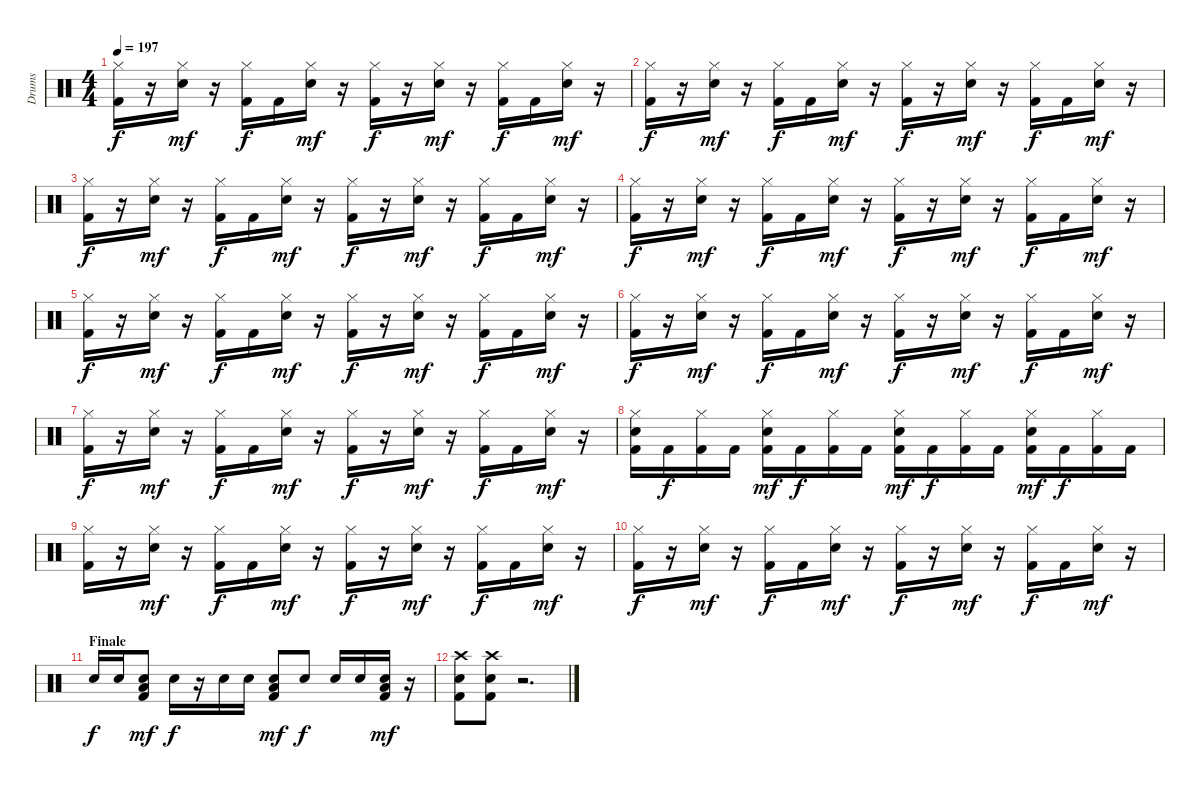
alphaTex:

\track ("Drums" "Drums") {instrument percussion}
\staff {score}
\articulation defaults
\ts (4 4)
\tempo 197
\clef neutral
\ks c
("Kick (hit) 2" "Hi-Hat (closed)").16{dy f} r.16 ("Snare (hit) 2" "Hi-Hat (closed)").16{dy mf} r.16 ("Kick (hit) 2" "Hi-Hat (closed)").16{dy f} "Kick (hit) 2".16 ("Snare (hit) 2" "Hi-Hat (closed)").16{dy mf} r.16 ("Kick (hit) 2" "Hi-Hat (closed)").16{dy f} r.16 ("Snare (hit) 2" "Hi-Hat (closed)").16{dy mf} r.16 ("Kick (hit) 2" "Hi-Hat (closed)").16{dy f} "Kick (hit) 2".16 ("Snare (hit) 2" "Hi-Hat (closed)").16{dy mf} r.16 |
("Kick (hit) 2" "Hi-Hat (closed)").16{dy f} r.16 ("Snare (hit) 2" "Hi-Hat (closed)").16{dy mf} r.16 ("Kick (hit) 2" "Hi-Hat (closed)").16{dy f} "Kick (hit) 2".16 ("Snare (hit) 2" "Hi-Hat (closed)").16{dy mf} r.16 ("Kick (hit) 2" "Hi-Hat (closed)").16{dy f} r.16 ("Snare (hit) 2" "Hi-Hat (closed)").16{dy mf} r.16 ("Kick (hit) 2" "Hi-Hat (closed)").16{dy f} "Kick (hit) 2".16 ("Snare (hit) 2" "Hi-Hat (closed)").16{dy mf} r.16 |
("Kick (hit) 2" "Hi-Hat (closed)").16{dy f} r.16 ("Snare (hit) 2" "Hi-Hat (closed)").16{dy mf} r.16 ("Kick (hit) 2" "Hi-Hat (closed)").16{dy f} "Kick (hit) 2".16 ("Snare (hit) 2" "Hi-Hat (closed)").16{dy mf} r.16 ("Kick (hit) 2" "Hi-Hat (closed)").16{dy f} r.16 ("Snare (hit) 2" "Hi-Hat (closed)").16{dy mf} r.16 ("Kick (hit) 2" "Hi-Hat (closed)").16{dy f} "Kick (hit) 2".16 ("Snare (hit) 2" "Hi-Hat (closed)").16{dy mf} r.16 |
("Kick (hit) 2" "Hi-Hat (closed)").16{dy f} r.16 ("Snare (hit) 2" "Hi-Hat (closed)").16{dy mf} r.16 ("Kick (hit) 2" "Hi-Hat (closed)").16{dy f} "Kick (hit) 2".16 ("Snare (hit) 2" "Hi-Hat (closed)").16{dy mf} r.16 ("Kick (hit) 2" "Hi-Hat (closed)").16{dy f} r.16 ("Snare (hit) 2" "Hi-Hat (closed)").16{dy mf} r.16 ("Kick (hit) 2" "Hi-Hat (closed)").16{dy f} "Kick (hit) 2".16 ("Snare (hit) 2" "Hi-Hat (closed)").16{dy mf} r.16 |
("Kick (hit) 2" "Hi-Hat (closed)").16{dy f} r.16 ("Snare (hit) 2" "Hi-Hat (closed)").16{dy mf} r.16 ("Kick (hit) 2" "Hi-Hat (closed)").16{dy f} "Kick (hit) 2".16 ("Snare (hit) 2" "Hi-Hat (closed)").16{dy mf} r.16 ("Kick (hit) 2" "Hi-Hat (closed)").16{dy f} r.16 ("Snare (hit) 2" "Hi-Hat (closed)").16{dy mf} r.16 ("Kick (hit) 2" "Hi-Hat (closed)").16{dy f} "Kick (hit) 2".16 ("Snare (hit) 2" "Hi-Hat (closed)").16{dy mf} r.16 |
("Kick (hit) 2" "Hi-Hat (closed)").16{dy f} r.16 ("Snare (hit) 2" "Hi-Hat (closed)").16{dy mf} r.16 ("Kick (hit) 2" "Hi-Hat (closed)").16{dy f} "Kick (hit) 2".16 ("Snare (hit) 2" "Hi-Hat (closed)").16{dy mf} r.16 ("Kick (hit) 2" "Hi-Hat (closed)").16{dy f} r.16 ("Snare (hit) 2" "Hi-Hat (closed)").16{dy mf} r.16 ("Kick (hit) 2" "Hi-Hat (closed)").16{dy f} "Kick (hit) 2".16 ("Snare (hit) 2" "Hi-Hat (closed)").16{dy mf} r.16 |
("Kick (hit) 2" "Hi-Hat (closed)").16{dy f} r.16 ("Snare (hit) 2" "Hi-Hat (closed)").16{dy mf} r.16 ("Kick (hit) 2" "Hi-Hat (closed)").16{dy f} "Kick (hit) 2".16 ("Snare (hit) 2" "Hi-Hat (closed)").16{dy mf} r.16 ("Kick (hit) 2" "Hi-Hat (closed)").16{dy f} r.16 ("Snare (hit) 2" "Hi-Hat (closed)").16{dy mf} r.16 ("Kick (hit) 2" "Hi-Hat (closed)").16{dy f} "Kick (hit) 2".16 ("Snare (hit) 2" "Hi-Hat (closed)").16{dy mf} r.16 |
("Kick (hit) 2" "Snare (hit) 2" "Hi-Hat (closed)").16 "Kick (hit) 2".16{dy f} ("Kick (hit) 2" "Hi-Hat (closed)").16 "Kick (hit) 2".16 ("Kick (hit) 2" "Snare (hit) 2" "Hi-Hat (closed)").16{dy mf} "Kick (hit) 2".16{dy f} ("Kick (hit) 2" "Hi-Hat (closed)").16 "Kick (hit) 2".16 ("Kick (hit) 2" "Snare (hit) 2" "Hi-Hat (closed)").16{dy mf} "Kick (hit) 2".16{dy f} ("Kick (hit) 2" "Hi-Hat (closed)").16 "Kick (hit) 2".16 ("Kick (hit) 2" "Snare (hit) 2" "Hi-Hat (closed)").16{dy mf} "Kick (hit) 2".16{dy f} ("Kick (hit) 2" "Hi-Hat (closed)").16 "Kick (hit) 2".16 |
("Kick (hit) 2" "Hi-Hat (closed)").16 r.16 ("Snare (hit) 2" "Hi-Hat (closed)").16{dy mf} r.16 ("Kick (hit) 2" "Hi-Hat (closed)").16{dy f} "Kick (hit) 2".16 ("Snare (hit) 2" "Hi-Hat (closed)").16{dy mf} r.16 ("Kick (hit) 2" "Hi-Hat (closed)").16{dy f} r.16 ("Snare (hit) 2" "Hi-Hat (closed)").16{dy mf} r.16 ("Kick (hit) 2" "Hi-Hat (closed)").16{dy f} "Kick (hit) 2".16 ("Snare (hit) 2" "Hi-Hat (closed)").16{dy mf} r.16 |
("Kick (hit) 2" "Hi-Hat (closed)").16{dy f} r.16 ("Snare (hit) 2" "Hi-Hat (closed)").16{dy mf} r.16 ("Kick (hit) 2" "Hi-Hat (closed)").16{dy f} "Kick (hit) 2".16 ("Snare (hit) 2" "Hi-Hat (closed)").16{dy mf} r.16 ("Kick (hit) 2" "Hi-Hat (closed)").16{dy f} r.16 ("Snare (hit) 2" "Hi-Hat (closed)").16{dy mf} r.16 ("Kick (hit) 2" "Hi-Hat (closed)").16{dy f} "Kick (hit) 2".16 ("Snare (hit) 2" "Hi-Hat (closed)").16{dy mf} r.16 |
\section ("" "Finale")
"Snare (hit) 2".16{dy f} "Snare (hit) 2".16 ("Kick (hit) 2" "Snare (hit) 2" "Low Floor Tom (hit)").8{dy mf} "Snare (hit) 2".16{dy f} r.16 "Snare (hit) 2".16 "Snare (hit) 2".16 ("Kick (hit) 2" "Snare (hit) 2" "Low Floor Tom (hit)").8{dy mf} "Snare (hit) 2".8{dy f} "Snare (hit) 2".16 "Snare (hit) 2".16 ("Kick (hit) 2" "Snare (hit) 2" "Low Floor Tom (hit)").16{dy mf} r.16 |
("Kick (hit) 2" "Snare (hit) 2" "Crash high (hit)").8 ("Kick (hit) 2" "Snare (hit) 2" "Crash high (hit)").8 r.2{d}
